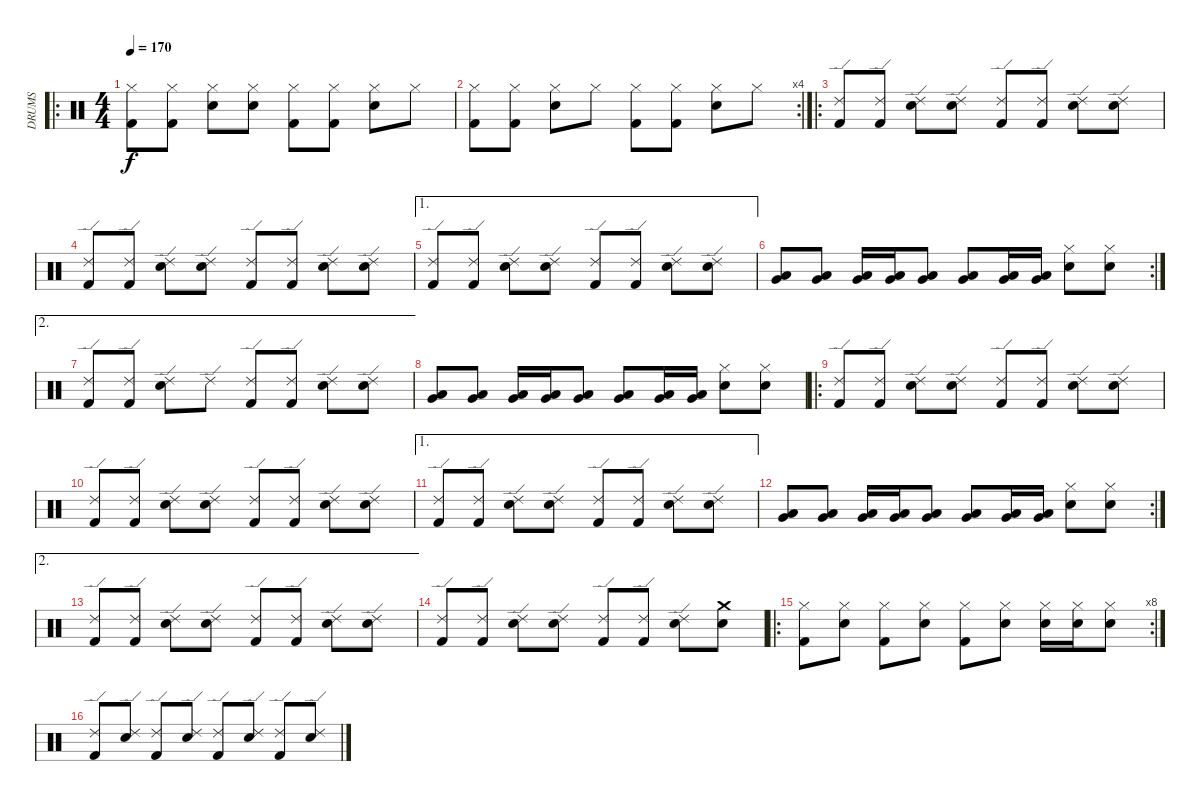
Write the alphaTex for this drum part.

\track ("DRUMS" "DRUMS") {instrument percussion}
\staff {score}
\articulation defaults
\ro
\ts (4 4)
\tempo 170
\clef neutral
\ks c
("Kick (hit) 2" "Hi-Hat (closed)").8{dy f} ("Kick (hit) 2" "Hi-Hat (closed)").8 ("Snare (hit) 2" "Hi-Hat (closed)").8 ("Hi-Hat (closed)" "Snare (hit) 2").8 ("Kick (hit) 2" "Hi-Hat (closed)").8 ("Kick (hit) 2" "Hi-Hat (closed)").8 ("Snare (hit) 2" "Hi-Hat (closed)").8 "Hi-Hat (closed)".8 |
\rc 4
("Kick (hit) 2" "Hi-Hat (closed)").8 ("Kick (hit) 2" "Hi-Hat (closed)").8 ("Snare (hit) 2" "Hi-Hat (closed)").8 "Hi-Hat (closed)".8 ("Kick (hit) 2" "Hi-Hat (closed)").8 ("Kick (hit) 2" "Hi-Hat (closed)").8 ("Snare (hit) 2" "Hi-Hat (closed)").8 "Hi-Hat (closed)".8 |
\ro
("Kick (hit) 2" "Ride (edge) 2").8 ("Kick (hit) 2" "Ride (edge) 2").8 ("Snare (hit) 2" "Ride (edge) 2").8 ("Ride (edge) 2" "Snare (hit) 2").8 ("Kick (hit) 2" "Ride (edge) 2").8 ("Kick (hit) 2" "Ride (edge) 2").8 ("Snare (hit) 2" "Ride (edge) 2").8 ("Ride (edge) 2" "Snare (hit) 2").8 |
("Kick (hit) 2" "Ride (edge) 2").8 ("Kick (hit) 2" "Ride (edge) 2").8 ("Snare (hit) 2" "Ride (edge) 2").8 ("Ride (edge) 2" "Snare (hit) 2").8 ("Kick (hit) 2" "Ride (edge) 2").8 ("Kick (hit) 2" "Ride (edge) 2").8 ("Snare (hit) 2" "Ride (edge) 2").8 ("Ride (edge) 2" "Snare (hit) 2").8 |
\ae 1
("Kick (hit) 2" "Ride (edge) 2").8 ("Kick (hit) 2" "Ride (edge) 2").8 ("Snare (hit) 2" "Ride (edge) 2").8 ("Snare (hit) 2" "Ride (edge) 2").8 ("Kick (hit) 2" "Ride (edge) 2").8 ("Kick (hit) 2" "Ride (edge) 2").8 ("Snare (hit) 2" "Ride (edge) 2").8 ("Ride (edge) 2" "Snare (hit) 2").8 |
\rc 2
("Low Tom (hit)" "Very Low Tom (hit)").8 ("Low Tom (hit)" "Very Low Tom (hit)").8 ("Low Tom (hit)" "Very Low Tom (hit)").16 ("Low Tom (hit)" "Very Low Tom (hit)").16 ("Very Low Tom (hit)" "Low Floor Tom (hit)").8 ("Very Low Tom (hit)" "Low Floor Tom (hit)").8 ("Very Low Tom (hit)" "Low Floor Tom (hit)").16 ("Very Low Tom (hit)" "Low Floor Tom (hit)").16 ("Snare (hit) 2" "Hi-Hat (closed)").8 ("Snare (hit) 2" "Hi-Hat (closed)").8 |
\ae 2
("Kick (hit) 2" "Ride (edge) 2").8 ("Kick (hit) 2" "Ride (edge) 2").8 ("Snare (hit) 2" "Ride (edge) 2").8 "Ride (edge) 2".8 ("Kick (hit) 2" "Ride (edge) 2").8 ("Kick (hit) 2" "Ride (edge) 2").8 ("Snare (hit) 2" "Ride (edge) 2").8 ("Ride (edge) 2" "Snare (hit) 2").8 |
("Low Tom (hit)" "Very Low Tom (hit)").8 ("Low Tom (hit)" "Very Low Tom (hit)").8 ("Low Tom (hit)" "Very Low Tom (hit)").16 ("Low Tom (hit)" "Very Low Tom (hit)").16 ("Very Low Tom (hit)" "Low Floor Tom (hit)").8 ("Very Low Tom (hit)" "Low Floor Tom (hit)").8 ("Very Low Tom (hit)" "Low Floor Tom (hit)").16 ("Very Low Tom (hit)" "Low Floor Tom (hit)").16 ("Snare (hit) 2" "Hi-Hat (closed)").8 ("Snare (hit) 2" "Hi-Hat (closed)").8 |
\ro
("Kick (hit) 2" "Ride (edge) 2").8 ("Kick (hit) 2" "Ride (edge) 2").8 ("Snare (hit) 2" "Ride (edge) 2").8 ("Ride (edge) 2" "Snare (hit) 2").8 ("Kick (hit) 2" "Ride (edge) 2").8 ("Kick (hit) 2" "Ride (edge) 2").8 ("Snare (hit) 2" "Ride (edge) 2").8 ("Ride (edge) 2" "Snare (hit) 2").8 |
("Kick (hit) 2" "Ride (edge) 2").8 ("Kick (hit) 2" "Ride (edge) 2").8 ("Snare (hit) 2" "Ride (edge) 2").8 ("Ride (edge) 2" "Snare (hit) 2").8 ("Kick (hit) 2" "Ride (edge) 2").8 ("Kick (hit) 2" "Ride (edge) 2").8 ("Snare (hit) 2" "Ride (edge) 2").8 ("Ride (edge) 2" "Snare (hit) 2").8 |
\ae 1
("Kick (hit) 2" "Ride (edge) 2").8 ("Kick (hit) 2" "Ride (edge) 2").8 ("Snare (hit) 2" "Ride (edge) 2").8 ("Ride (edge) 2" "Snare (hit) 2").8 ("Kick (hit) 2" "Ride (edge) 2").8 ("Kick (hit) 2" "Ride (edge) 2").8 ("Snare (hit) 2" "Ride (edge) 2").8 ("Ride (edge) 2" "Snare (hit) 2").8 |
\rc 2
("Low Tom (hit)" "Very Low Tom (hit)").8 ("Low Tom (hit)" "Very Low Tom (hit)").8 ("Low Tom (hit)" "Very Low Tom (hit)").16 ("Low Tom (hit)" "Very Low Tom (hit)").16 ("Very Low Tom (hit)" "Low Floor Tom (hit)").8 ("Very Low Tom (hit)" "Low Floor Tom (hit)").8 ("Very Low Tom (hit)" "Low Floor Tom (hit)").16 ("Very Low Tom (hit)" "Low Floor Tom (hit)").16 ("Snare (hit) 2" "Hi-Hat (closed)").8 ("Snare (hit) 2" "Hi-Hat (closed)").8 |
\ae 2
("Kick (hit) 2" "Ride (edge) 2").8 ("Kick (hit) 2" "Ride (edge) 2").8 ("Snare (hit) 2" "Ride (edge) 2").8 ("Ride (edge) 2" "Snare (hit) 2").8 ("Kick (hit) 2" "Ride (edge) 2").8 ("Kick (hit) 2" "Ride (edge) 2").8 ("Snare (hit) 2" "Ride (edge) 2").8 ("Ride (edge) 2" "Snare (hit) 2").8 |
("Kick (hit) 2" "Ride (edge) 2").8 ("Kick (hit) 2" "Ride (edge) 2").8 ("Snare (hit) 2" "Ride (edge) 2").8 ("Ride (edge) 2" "Snare (hit) 2").8 ("Kick (hit) 2" "Ride (edge) 2").8 ("Kick (hit) 2" "Ride (edge) 2").8 ("Snare (hit) 2" "Ride (edge) 2").8 ("Crash medium (hit)" "Snare (hit) 2").8 |
\ro
\rc 8
("Kick (hit) 2" "Hi-Hat (closed)").8 ("Snare (hit) 2" "Hi-Hat (closed)").8 ("Kick (hit) 2" "Hi-Hat (closed)").8 ("Snare (hit) 2" "Hi-Hat (closed)").8 ("Kick (hit) 2" "Hi-Hat (closed)").8 ("Snare (hit) 2" "Hi-Hat (closed)").8 ("Snare (hit) 2" "Hi-Hat (closed)").16 ("Snare (hit) 2" "Hi-Hat (closed)").16 ("Snare (hit) 2" "Hi-Hat (closed)").8 |
("Kick (hit) 2" "Ride (edge) 2").8 ("Snare (hit) 2" "Ride (edge) 2").8 ("Kick (hit) 2" "Ride (edge) 2").8 ("Snare (hit) 2" "Ride (edge) 2").8 ("Kick (hit) 2" "Ride (edge) 2").8 ("Snare (hit) 2" "Ride (edge) 2").8 ("Kick (hit) 2" "Ride (edge) 2").8 ("Snare (hit) 2" "Ride (edge) 2").8
